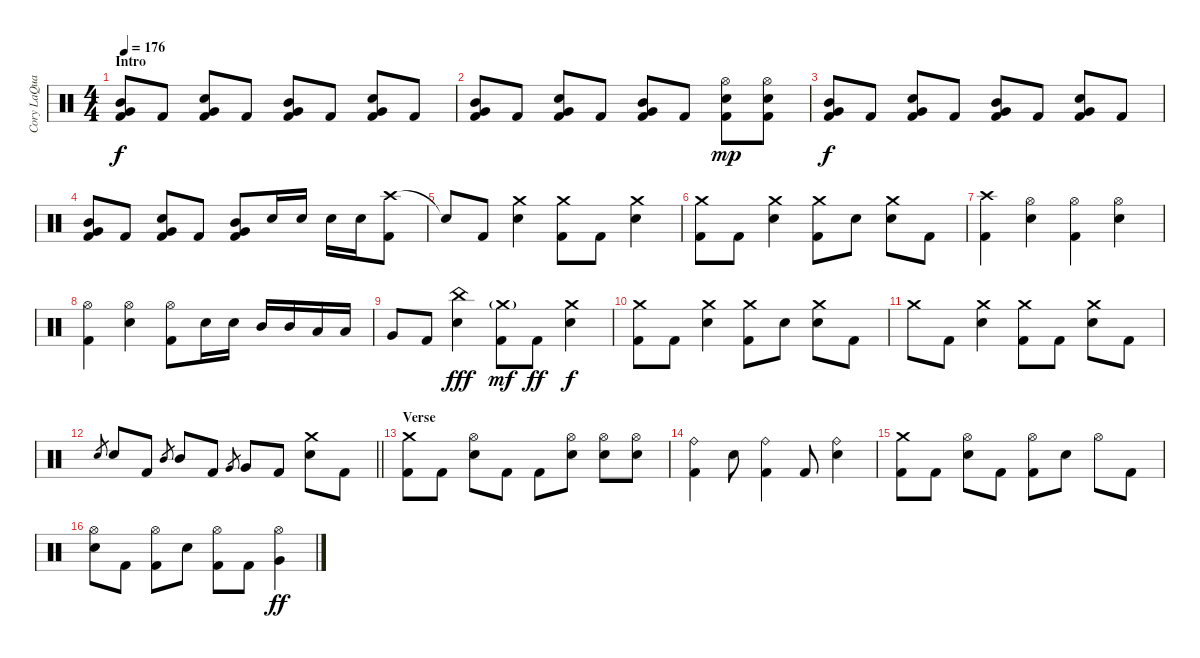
\track ("Cory LaQuay" "Cory LaQua") {instrument percussion}
\staff {score}
\articulation defaults
\ts (4 4)
\section ("" "Intro")
\tempo 176
\clef neutral
\ks c
("Mid Tom (hit)" "Very Low Tom (hit)" "Kick (hit) 2").8{dy f} "Kick (hit) 2".8 ("Very Low Tom (hit)" "Snare (hit) 2" "Kick (hit) 2").8 "Kick (hit) 2".8 ("Mid Tom (hit)" "Very Low Tom (hit)" "Kick (hit) 2").8 "Kick (hit) 2".8 ("Very Low Tom (hit)" "Snare (hit) 2" "Kick (hit) 2").8 "Kick (hit) 2".8 |
("Mid Tom (hit)" "Very Low Tom (hit)" "Kick (hit) 2").8 "Kick (hit) 2".8 ("Very Low Tom (hit)" "Snare (hit) 2" "Kick (hit) 2").8 "Kick (hit) 2".8 ("Mid Tom (hit)" "Very Low Tom (hit)" "Kick (hit) 2").8 "Kick (hit) 2".8 ("Hi-Hat (open)" "Snare (hit) 2" "Kick (hit) 2").8{dy mp} ("Hi-Hat (open)" "Snare (hit) 2" "Kick (hit) 2").8 |
("Mid Tom (hit)" "Very Low Tom (hit)" "Kick (hit) 2").8{dy f} "Kick (hit) 2".8 ("Very Low Tom (hit)" "Snare (hit) 2" "Kick (hit) 2").8 "Kick (hit) 2".8 ("Mid Tom (hit)" "Very Low Tom (hit)" "Kick (hit) 2").8 "Kick (hit) 2".8 ("Very Low Tom (hit)" "Snare (hit) 2" "Kick (hit) 2").8 "Kick (hit) 2".8 |
("Mid Tom (hit)" "Very Low Tom (hit)" "Kick (hit) 2").8 "Kick (hit) 2".8 ("Very Low Tom (hit)" "Snare (hit) 2" "Kick (hit) 2").8 "Kick (hit) 2".8 ("Mid Tom (hit)" "Very Low Tom (hit)" "Kick (hit) 2").8 "Snare (hit) 2".16 "Snare (hit) 2".16 "Snare (hit) 2".16 "Snare (hit) 2".16 ("Crash high (hit)" "Kick (hit) 2").8 |
"Snare (hit)"{t}.8 "Kick (hit) 2".8 ("Crash medium (hit)" "Snare (hit) 2").4 ("Crash medium (hit)" "Kick (hit) 2").8 "Kick (hit) 2".8 ("Crash medium (hit)" "Snare (hit) 2").4 |
("Crash medium (hit)" "Kick (hit) 2").8 "Kick (hit) 2".8 ("Crash medium (hit)" "Snare (hit) 2").4 ("Crash medium (hit)" "Kick (hit) 2").8 "Snare (hit) 2".8 ("Crash medium (hit)" "Snare (hit) 2").8 "Kick (hit) 2".8 |
("Crash high (hit)" "Kick (hit) 2").4 ("Hi-Hat (open)" "Snare (hit) 2").4 ("Hi-Hat (open)" "Kick (hit) 2").4 ("Hi-Hat (open)" "Snare (hit) 2").4 |
("Hi-Hat (open)" "Kick (hit) 2").4 ("Hi-Hat (open)" "Snare (hit) 2").4 ("Hi-Hat (open)" "Kick (hit) 2").8 "Snare (hit) 2".16 "Snare (hit) 2".16 "Mid Tom (hit)".16 "Mid Tom (hit)".16 "Low Tom (hit)".16 "Low Tom (hit)".16 |
"Very Low Tom (hit)".8 "Kick (hit) 2".8 ("China (hit)" "Snare (hit) 2").4{dy fff} ("Crash medium (hit)"{g} "Kick (hit) 2").8{dy mf} "Kick (hit) 2".8{dy ff} ("Crash medium (hit)" "Snare (hit) 2").4{dy f} |
("Crash medium (hit)" "Kick (hit) 2").8 "Kick (hit) 2".8 ("Crash medium (hit)" "Snare (hit) 2").4 ("Crash medium (hit)" "Kick (hit) 2").8 "Snare (hit) 2".8 ("Crash medium (hit)" "Snare (hit) 2").8 "Kick (hit) 2".8 |
"Crash medium (hit)".8 "Kick (hit) 2".8 ("Crash medium (hit)" "Snare (hit) 2").4 ("Crash medium (hit)" "Kick (hit) 2").8 "Kick (hit) 2".8 ("Crash medium (hit)" "Snare (hit) 2").8 "Kick (hit) 2".8 |
\barLineRight lightlight "Snare (hit) 2".8{gr} "Snare (hit) 2".8 "Kick (hit) 2".8 "Mid Tom (hit)".8{gr} "Mid Tom (hit)".8 "Kick (hit) 2".8 "Very Low Tom (hit)".8{gr} "Very Low Tom (hit)".8 "Kick (hit) 2".8
("Crash medium (hit)" "Snare (hit) 2").8 "Kick (hit) 2".8 |
\section ("" "Verse")
("Crash medium (hit)" "Kick (hit) 2").8 "Kick (hit) 2".8 ("Hi-Hat (open)" "Snare (hit) 2").8 "Kick (hit) 2".8 "Kick (hit) 2".8 ("Hi-Hat (open)" "Snare (hit) 2").8 ("Hi-Hat (open)" "Snare (hit) 2").8 ("Hi-Hat (open)" "Snare (hit) 2").8 |
("Ride (bell)" "Kick (hit) 2").4 "Snare (hit) 2".8 ("Ride (bell)" "Kick (hit) 2").4 "Kick (hit) 2".8 ("Ride (bell)" "Snare (hit) 2").4 |
("Crash medium (hit)" "Kick (hit) 2").8 "Kick (hit) 2".8 ("Hi-Hat (open)" "Snare (hit) 2").8 "Kick (hit) 2".8 ("Hi-Hat (open)" "Kick (hit) 2").8 "Snare (hit) 2".8 "Hi-Hat (open)".8 "Kick (hit) 2".8 |
("Hi-Hat (open)" "Snare (hit) 2").8 "Kick (hit) 2".8 ("Hi-Hat (open)" "Kick (hit) 2").8 "Snare (hit) 2".8 ("Hi-Hat (open)" "Kick (hit) 2").8 "Kick (hit) 2".8 ("Hi-Hat (open)" "Very Low Tom (hit)").4{dy ff}
